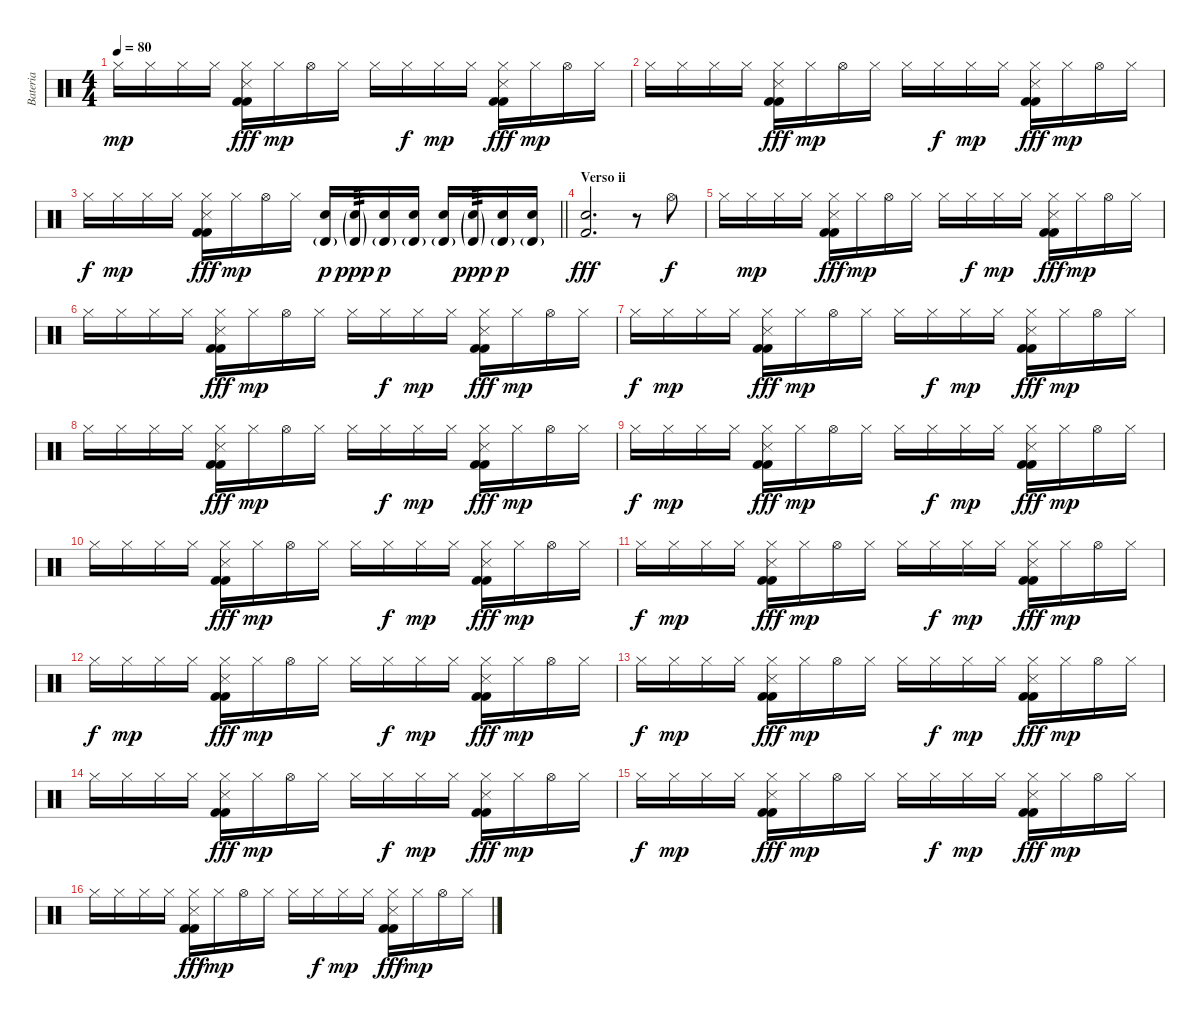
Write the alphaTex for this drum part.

\track ("Bateria" "Bateria") {instrument percussion}
\staff {score}
\articulation defaults
\ts (4 4)
\tempo 80
\clef neutral
\ks c "Hi-Hat (closed)".16{dy mp} "Hi-Hat (closed)".16 "Hi-Hat (closed)".16 "Hi-Hat (closed)".16
("Hi-Hat (closed)" "Kick (hit) 2" "Snare (side stick) 3" "Kick (hit) 2").16{dy fff} "Hi-Hat (closed)".16{dy mp} "Hi-Hat (open)".16 "Hi-Hat (closed)".16 "Hi-Hat (closed)".16 "Hi-Hat (closed)".16{dy f} "Hi-Hat (closed)".16{dy mp} "Hi-Hat (closed)".16 ("Hi-Hat (closed)" "Snare (side stick) 3" "Kick (hit) 2" "Kick (hit) 2").16{dy fff} "Hi-Hat (closed)".16{dy mp} "Hi-Hat (open)".16 "Hi-Hat (closed)".16 |
"Hi-Hat (closed)".16 "Hi-Hat (closed)".16 "Hi-Hat (closed)".16 "Hi-Hat (closed)".16 ("Hi-Hat (closed)" "Kick (hit) 2" "Snare (side stick) 3" "Kick (hit) 2").16{dy fff} "Hi-Hat (closed)".16{dy mp} "Hi-Hat (open)".16 "Hi-Hat (closed)".16 "Hi-Hat (closed)".16 "Hi-Hat (closed)".16{dy f} "Hi-Hat (closed)".16{dy mp} "Hi-Hat (closed)".16 ("Hi-Hat (closed)" "Snare (side stick) 3" "Kick (hit) 2" "Kick (hit) 2").16{dy fff} "Hi-Hat (closed)".16{dy mp} "Hi-Hat (open)".16 "Hi-Hat (closed)".16 |
\barLineRight lightlight "Hi-Hat (closed)".16{dy f} "Hi-Hat (closed)".16{dy mp} "Hi-Hat (closed)".16 "Hi-Hat (closed)".16
("Hi-Hat (closed)" "Kick (hit) 2" "Snare (side stick) 3" "Kick (hit) 2").16{dy fff} "Hi-Hat (closed)".16{dy mp} "Hi-Hat (open)".16 "Hi-Hat (closed)".16 ("Electric Snare (hit)" "Timbale high (hit)"{g}).16{dy p} ("Electric Snare (hit)"{g} "Timbale high (hit)"{g}).16{tp 3 dy ppp} ("Electric Snare (hit)" "Timbale high (hit)"{g}).16{dy p} ("Electric Snare (hit)" "Timbale high (hit)"{g}).16 ("Electric Snare (hit)" "Timbale high (hit)"{g}).16 ("Electric Snare (hit)"{g} "Timbale high (hit)"{g}).16{tp 3 dy ppp} ("Electric Snare (hit)" "Timbale high (hit)"{g}).16{dy p} ("Electric Snare (hit)" "Timbale high (hit)"{g}).16 |
\section ("" "Verso ii")
("Electric Snare (hit)" "Kick (hit) 2").2{d dy fff} r.8 "Hi-Hat (open)".8{dy f} |
"Hi-Hat (closed)".16 "Hi-Hat (closed)".16{dy mp} "Hi-Hat (closed)".16 "Hi-Hat (closed)".16 ("Hi-Hat (closed)" "Kick (hit) 2" "Snare (side stick) 3" "Kick (hit) 2").16{dy fff} "Hi-Hat (closed)".16{dy mp} "Hi-Hat (open)".16 "Hi-Hat (closed)".16 "Hi-Hat (closed)".16 "Hi-Hat (closed)".16{dy f} "Hi-Hat (closed)".16{dy mp} "Hi-Hat (closed)".16 ("Hi-Hat (closed)" "Snare (side stick) 3" "Kick (hit) 2" "Kick (hit) 2").16{dy fff} "Hi-Hat (closed)".16{dy mp} "Hi-Hat (open)".16 "Hi-Hat (closed)".16 |
"Hi-Hat (closed)".16 "Hi-Hat (closed)".16 "Hi-Hat (closed)".16 "Hi-Hat (closed)".16 ("Hi-Hat (closed)" "Kick (hit) 2" "Snare (side stick) 3" "Kick (hit) 2").16{dy fff} "Hi-Hat (closed)".16{dy mp} "Hi-Hat (open)".16 "Hi-Hat (closed)".16 "Hi-Hat (closed)".16 "Hi-Hat (closed)".16{dy f} "Hi-Hat (closed)".16{dy mp} "Hi-Hat (closed)".16 ("Hi-Hat (closed)" "Snare (side stick) 3" "Kick (hit) 2" "Kick (hit) 2").16{dy fff} "Hi-Hat (closed)".16{dy mp} "Hi-Hat (open)".16 "Hi-Hat (closed)".16 |
"Hi-Hat (closed)".16{dy f} "Hi-Hat (closed)".16{dy mp} "Hi-Hat (closed)".16 "Hi-Hat (closed)".16 ("Hi-Hat (closed)" "Kick (hit) 2" "Snare (side stick) 3" "Kick (hit) 2").16{dy fff} "Hi-Hat (closed)".16{dy mp} "Hi-Hat (open)".16 "Hi-Hat (closed)".16 "Hi-Hat (closed)".16 "Hi-Hat (closed)".16{dy f} "Hi-Hat (closed)".16{dy mp} "Hi-Hat (closed)".16 ("Hi-Hat (closed)" "Snare (side stick) 3" "Kick (hit) 2" "Kick (hit) 2").16{dy fff} "Hi-Hat (closed)".16{dy mp} "Hi-Hat (open)".16 "Hi-Hat (closed)".16 |
"Hi-Hat (closed)".16 "Hi-Hat (closed)".16 "Hi-Hat (closed)".16 "Hi-Hat (closed)".16 ("Hi-Hat (closed)" "Kick (hit) 2" "Snare (side stick) 3" "Kick (hit) 2").16{dy fff} "Hi-Hat (closed)".16{dy mp} "Hi-Hat (open)".16 "Hi-Hat (closed)".16 "Hi-Hat (closed)".16 "Hi-Hat (closed)".16{dy f} "Hi-Hat (closed)".16{dy mp} "Hi-Hat (closed)".16 ("Hi-Hat (closed)" "Snare (side stick) 3" "Kick (hit) 2" "Kick (hit) 2").16{dy fff} "Hi-Hat (closed)".16{dy mp} "Hi-Hat (open)".16 "Hi-Hat (closed)".16 |
"Hi-Hat (closed)".16{dy f} "Hi-Hat (closed)".16{dy mp} "Hi-Hat (closed)".16 "Hi-Hat (closed)".16 ("Hi-Hat (closed)" "Kick (hit) 2" "Snare (side stick) 3" "Kick (hit) 2").16{dy fff} "Hi-Hat (closed)".16{dy mp} "Hi-Hat (open)".16 "Hi-Hat (closed)".16 "Hi-Hat (closed)".16 "Hi-Hat (closed)".16{dy f} "Hi-Hat (closed)".16{dy mp} "Hi-Hat (closed)".16 ("Hi-Hat (closed)" "Snare (side stick) 3" "Kick (hit) 2" "Kick (hit) 2").16{dy fff} "Hi-Hat (closed)".16{dy mp} "Hi-Hat (open)".16 "Hi-Hat (closed)".16 |
"Hi-Hat (closed)".16 "Hi-Hat (closed)".16 "Hi-Hat (closed)".16 "Hi-Hat (closed)".16 ("Hi-Hat (closed)" "Kick (hit) 2" "Snare (side stick) 3" "Kick (hit) 2").16{dy fff} "Hi-Hat (closed)".16{dy mp} "Hi-Hat (open)".16 "Hi-Hat (closed)".16 "Hi-Hat (closed)".16 "Hi-Hat (closed)".16{dy f} "Hi-Hat (closed)".16{dy mp} "Hi-Hat (closed)".16 ("Hi-Hat (closed)" "Snare (side stick) 3" "Kick (hit) 2" "Kick (hit) 2").16{dy fff} "Hi-Hat (closed)".16{dy mp} "Hi-Hat (open)".16 "Hi-Hat (closed)".16 |
"Hi-Hat (closed)".16{dy f} "Hi-Hat (closed)".16{dy mp} "Hi-Hat (closed)".16 "Hi-Hat (closed)".16 ("Hi-Hat (closed)" "Kick (hit) 2" "Snare (side stick) 3" "Kick (hit) 2").16{dy fff} "Hi-Hat (closed)".16{dy mp} "Hi-Hat (open)".16 "Hi-Hat (closed)".16 "Hi-Hat (closed)".16 "Hi-Hat (closed)".16{dy f} "Hi-Hat (closed)".16{dy mp} "Hi-Hat (closed)".16 ("Hi-Hat (closed)" "Snare (side stick) 3" "Kick (hit) 2" "Kick (hit) 2").16{dy fff} "Hi-Hat (closed)".16{dy mp} "Hi-Hat (open)".16 "Hi-Hat (closed)".16 |
"Hi-Hat (closed)".16{dy f} "Hi-Hat (closed)".16{dy mp} "Hi-Hat (closed)".16 "Hi-Hat (closed)".16 ("Hi-Hat (closed)" "Kick (hit) 2" "Snare (side stick) 3" "Kick (hit) 2").16{dy fff} "Hi-Hat (closed)".16{dy mp} "Hi-Hat (open)".16 "Hi-Hat (closed)".16 "Hi-Hat (closed)".16 "Hi-Hat (closed)".16{dy f} "Hi-Hat (closed)".16{dy mp} "Hi-Hat (closed)".16 ("Hi-Hat (closed)" "Snare (side stick) 3" "Kick (hit) 2" "Kick (hit) 2").16{dy fff} "Hi-Hat (closed)".16{dy mp} "Hi-Hat (open)".16 "Hi-Hat (closed)".16 |
"Hi-Hat (closed)".16{dy f} "Hi-Hat (closed)".16{dy mp} "Hi-Hat (closed)".16 "Hi-Hat (closed)".16 ("Hi-Hat (closed)" "Kick (hit) 2" "Snare (side stick) 3" "Kick (hit) 2").16{dy fff} "Hi-Hat (closed)".16{dy mp} "Hi-Hat (open)".16 "Hi-Hat (closed)".16 "Hi-Hat (closed)".16 "Hi-Hat (closed)".16{dy f} "Hi-Hat (closed)".16{dy mp} "Hi-Hat (closed)".16 ("Hi-Hat (closed)" "Snare (side stick) 3" "Kick (hit) 2" "Kick (hit) 2").16{dy fff} "Hi-Hat (closed)".16{dy mp} "Hi-Hat (open)".16 "Hi-Hat (closed)".16 |
"Hi-Hat (closed)".16 "Hi-Hat (closed)".16 "Hi-Hat (closed)".16 "Hi-Hat (closed)".16 ("Hi-Hat (closed)" "Kick (hit) 2" "Snare (side stick) 3" "Kick (hit) 2").16{dy fff} "Hi-Hat (closed)".16{dy mp} "Hi-Hat (open)".16 "Hi-Hat (closed)".16 "Hi-Hat (closed)".16 "Hi-Hat (closed)".16{dy f} "Hi-Hat (closed)".16{dy mp} "Hi-Hat (closed)".16 ("Hi-Hat (closed)" "Snare (side stick) 3" "Kick (hit) 2" "Kick (hit) 2").16{dy fff} "Hi-Hat (closed)".16{dy mp} "Hi-Hat (open)".16 "Hi-Hat (closed)".16 |
"Hi-Hat (closed)".16{dy f} "Hi-Hat (closed)".16{dy mp} "Hi-Hat (closed)".16 "Hi-Hat (closed)".16 ("Hi-Hat (closed)" "Kick (hit) 2" "Snare (side stick) 3" "Kick (hit) 2").16{dy fff} "Hi-Hat (closed)".16{dy mp} "Hi-Hat (open)".16 "Hi-Hat (closed)".16 "Hi-Hat (closed)".16 "Hi-Hat (closed)".16{dy f} "Hi-Hat (closed)".16{dy mp} "Hi-Hat (closed)".16 ("Hi-Hat (closed)" "Snare (side stick) 3" "Kick (hit) 2" "Kick (hit) 2").16{dy fff} "Hi-Hat (closed)".16{dy mp} "Hi-Hat (open)".16 "Hi-Hat (closed)".16 |
"Hi-Hat (closed)".16 "Hi-Hat (closed)".16 "Hi-Hat (closed)".16 "Hi-Hat (closed)".16 ("Hi-Hat (closed)" "Kick (hit) 2" "Snare (side stick) 3" "Kick (hit) 2").16{dy fff} "Hi-Hat (closed)".16{dy mp} "Hi-Hat (open)".16 "Hi-Hat (closed)".16 "Hi-Hat (closed)".16 "Hi-Hat (closed)".16{dy f} "Hi-Hat (closed)".16{dy mp} "Hi-Hat (closed)".16 ("Hi-Hat (closed)" "Snare (side stick) 3" "Kick (hit) 2" "Kick (hit) 2").16{dy fff} "Hi-Hat (closed)".16{dy mp} "Hi-Hat (open)".16 "Hi-Hat (closed)".16
